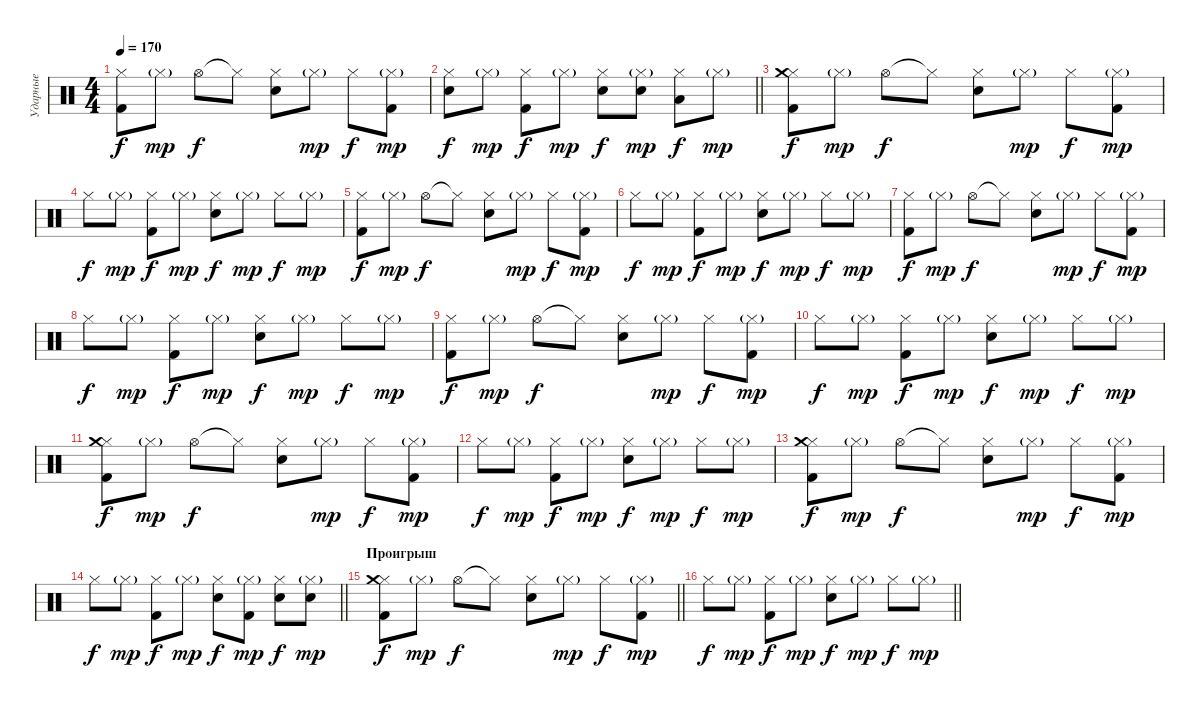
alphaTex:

\track ("Ударные" "Ударные") {instrument percussion}
\staff {score}
\articulation defaults
\ts (4 4)
\tempo 170
\clef neutral
\ks c
("Kick (hit) 2" "Hi-Hat (closed)").8{dy f} "Hi-Hat (closed)"{g}.8{dy mp} "Hi-Hat (open)".8{dy f} "Hi-Hat (closed)"{t}.8 ("Electric Snare (hit)" "Hi-Hat (closed)").8 "Hi-Hat (closed)"{g}.8{dy mp} "Hi-Hat (closed)".8{dy f} ("Kick (hit) 2" "Hi-Hat (closed)"{g}).8{dy mp} |
\barLineRight lightlight
("Electric Snare (hit)" "Hi-Hat (closed)").8{dy f} "Hi-Hat (closed)"{g}.8{dy mp} ("Kick (hit) 2" "Hi-Hat (closed)").8{dy f} "Hi-Hat (closed)"{g}.8{dy mp} ("Electric Snare (hit)" "Hi-Hat (closed)").8{dy f} ("Electric Snare (hit)" "Hi-Hat (closed)"{g}).8{dy mp} ("Low Floor Tom (hit)" "Hi-Hat (closed)").8{dy f} "Hi-Hat (closed)"{g}.8{dy mp} |
("Kick (hit) 2" "Hi-Hat (closed)" "Crash medium (hit)").8{dy f} "Hi-Hat (closed)"{g}.8{dy mp} "Hi-Hat (open)".8{dy f} "Hi-Hat (closed)"{t}.8 ("Electric Snare (hit)" "Hi-Hat (closed)").8 "Hi-Hat (closed)"{g}.8{dy mp} "Hi-Hat (closed)".8{dy f} ("Kick (hit) 2" "Hi-Hat (closed)"{g}).8{dy mp} |
"Hi-Hat (closed)".8{dy f} "Hi-Hat (closed)"{g}.8{dy mp} ("Kick (hit) 2" "Hi-Hat (closed)").8{dy f} "Hi-Hat (closed)"{g}.8{dy mp} ("Electric Snare (hit)" "Hi-Hat (closed)").8{dy f} "Hi-Hat (closed)"{g}.8{dy mp} "Hi-Hat (closed)".8{dy f} "Hi-Hat (closed)"{g}.8{dy mp} |
("Kick (hit) 2" "Hi-Hat (closed)").8{dy f} "Hi-Hat (closed)"{g}.8{dy mp} "Hi-Hat (open)".8{dy f} "Hi-Hat (closed)"{t}.8 ("Electric Snare (hit)" "Hi-Hat (closed)").8 "Hi-Hat (closed)"{g}.8{dy mp} "Hi-Hat (closed)".8{dy f} ("Kick (hit) 2" "Hi-Hat (closed)"{g}).8{dy mp} |
"Hi-Hat (closed)".8{dy f} "Hi-Hat (closed)"{g}.8{dy mp} ("Kick (hit) 2" "Hi-Hat (closed)").8{dy f} "Hi-Hat (closed)"{g}.8{dy mp} ("Electric Snare (hit)" "Hi-Hat (closed)").8{dy f} "Hi-Hat (closed)"{g}.8{dy mp} "Hi-Hat (closed)".8{dy f} "Hi-Hat (closed)"{g}.8{dy mp} |
("Kick (hit) 2" "Hi-Hat (closed)").8{dy f} "Hi-Hat (closed)"{g}.8{dy mp} "Hi-Hat (open)".8{dy f} "Hi-Hat (closed)"{t}.8 ("Electric Snare (hit)" "Hi-Hat (closed)").8 "Hi-Hat (closed)"{g}.8{dy mp} "Hi-Hat (closed)".8{dy f} ("Kick (hit) 2" "Hi-Hat (closed)"{g}).8{dy mp} |
"Hi-Hat (closed)".8{dy f} "Hi-Hat (closed)"{g}.8{dy mp} ("Kick (hit) 2" "Hi-Hat (closed)").8{dy f} "Hi-Hat (closed)"{g}.8{dy mp} ("Electric Snare (hit)" "Hi-Hat (closed)").8{dy f} "Hi-Hat (closed)"{g}.8{dy mp} "Hi-Hat (closed)".8{dy f} "Hi-Hat (closed)"{g}.8{dy mp} |
("Kick (hit) 2" "Hi-Hat (closed)").8{dy f} "Hi-Hat (closed)"{g}.8{dy mp} "Hi-Hat (open)".8{dy f} "Hi-Hat (closed)"{t}.8 ("Electric Snare (hit)" "Hi-Hat (closed)").8 "Hi-Hat (closed)"{g}.8{dy mp} "Hi-Hat (closed)".8{dy f} ("Kick (hit) 2" "Hi-Hat (closed)"{g}).8{dy mp} |
"Hi-Hat (closed)".8{dy f} "Hi-Hat (closed)"{g}.8{dy mp} ("Kick (hit) 2" "Hi-Hat (closed)").8{dy f} "Hi-Hat (closed)"{g}.8{dy mp} ("Electric Snare (hit)" "Hi-Hat (closed)").8{dy f} "Hi-Hat (closed)"{g}.8{dy mp} "Hi-Hat (closed)".8{dy f} "Hi-Hat (closed)"{g}.8{dy mp} |
("Kick (hit) 2" "Hi-Hat (closed)" "Crash medium (hit)").8{dy f} "Hi-Hat (closed)"{g}.8{dy mp} "Hi-Hat (open)".8{dy f} "Hi-Hat (closed)"{t}.8 ("Electric Snare (hit)" "Hi-Hat (closed)").8 "Hi-Hat (closed)"{g}.8{dy mp} "Hi-Hat (closed)".8{dy f} ("Kick (hit) 2" "Hi-Hat (closed)"{g}).8{dy mp} |
"Hi-Hat (closed)".8{dy f} "Hi-Hat (closed)"{g}.8{dy mp} ("Kick (hit) 2" "Hi-Hat (closed)").8{dy f} "Hi-Hat (closed)"{g}.8{dy mp} ("Electric Snare (hit)" "Hi-Hat (closed)").8{dy f} "Hi-Hat (closed)"{g}.8{dy mp} "Hi-Hat (closed)".8{dy f} "Hi-Hat (closed)"{g}.8{dy mp} |
("Kick (hit) 2" "Hi-Hat (closed)" "Crash medium (hit)").8{dy f} "Hi-Hat (closed)"{g}.8{dy mp} "Hi-Hat (open)".8{dy f} "Hi-Hat (closed)"{t}.8 ("Electric Snare (hit)" "Hi-Hat (closed)").8 "Hi-Hat (closed)"{g}.8{dy mp} "Hi-Hat (closed)".8{dy f} ("Kick (hit) 2" "Hi-Hat (closed)"{g}).8{dy mp} |
\barLineRight lightlight "Hi-Hat (closed)".8{dy f} "Hi-Hat (closed)"{g}.8{dy mp}
("Kick (hit) 2" "Hi-Hat (closed)").8{dy f} "Hi-Hat (closed)"{g}.8{dy mp} ("Electric Snare (hit)" "Hi-Hat (closed)").8{dy f} ("Kick (hit) 2" "Hi-Hat (closed)"{g}).8{dy mp} ("Electric Snare (hit)" "Hi-Hat (closed)").8{dy f} ("Electric Snare (hit)" "Hi-Hat (closed)"{g}).8{dy mp} |
\section ("" "Проигрыш")
\barLineRight lightlight
("Kick (hit) 2" "Hi-Hat (closed)" "Crash medium (hit)").8{dy f} "Hi-Hat (closed)"{g}.8{dy mp} "Hi-Hat (open)".8{dy f} "Hi-Hat (closed)"{t}.8 ("Electric Snare (hit)" "Hi-Hat (closed)").8 "Hi-Hat (closed)"{g}.8{dy mp} "Hi-Hat (closed)".8{dy f} ("Kick (hit) 2" "Hi-Hat (closed)"{g}).8{dy mp} |
\barLineRight lightlight "Hi-Hat (closed)".8{dy f} "Hi-Hat (closed)"{g}.8{dy mp}
("Kick (hit) 2" "Hi-Hat (closed)").8{dy f} "Hi-Hat (closed)"{g}.8{dy mp} ("Electric Snare (hit)" "Hi-Hat (closed)").8{dy f} "Hi-Hat (closed)"{g}.8{dy mp} "Hi-Hat (closed)".8{dy f} "Hi-Hat (closed)"{g}.8{dy mp}
